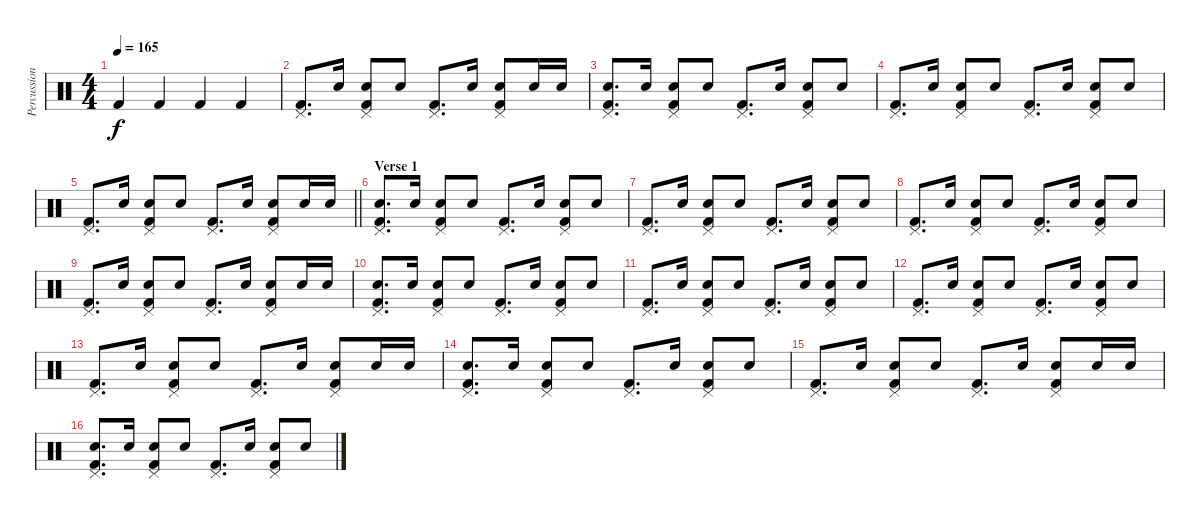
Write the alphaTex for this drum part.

\track ("Percussion" "Percussion") {instrument percussion}
\staff {score}
\articulation defaults
\ts (4 4)
\tempo 165
\clef neutral
\ks c "Kick (hit) 2".4{dy f} "Kick (hit) 2".4 "Kick (hit) 2".4 "Kick (hit) 2".4
|
("Pedal Hi-Hat (hit)" "Kick (hit) 2").8{d} "Electric Snare (hit)".16 ("Pedal Hi-Hat (hit)" "Electric Snare (hit)" "Kick (hit) 2").8 "Electric Snare (hit)".8 ("Pedal Hi-Hat (hit)" "Kick (hit) 2").8{d} "Electric Snare (hit)".16 ("Pedal Hi-Hat (hit)" "Electric Snare (hit)" "Kick (hit) 2").8 "Electric Snare (hit)".16 "Electric Snare (hit)".16 |
("Pedal Hi-Hat (hit)" "Electric Snare (hit)" "Kick (hit) 2").8{d} "Electric Snare (hit)".16 ("Pedal Hi-Hat (hit)" "Electric Snare (hit)" "Kick (hit) 2").8 "Electric Snare (hit)".8 ("Pedal Hi-Hat (hit)" "Kick (hit) 2").8{d} "Electric Snare (hit)".16 ("Pedal Hi-Hat (hit)" "Electric Snare (hit)" "Kick (hit) 2").8 "Electric Snare (hit)".8 |
("Pedal Hi-Hat (hit)" "Kick (hit) 2").8{d} "Electric Snare (hit)".16 ("Pedal Hi-Hat (hit)" "Electric Snare (hit)" "Kick (hit) 2").8 "Electric Snare (hit)".8 ("Pedal Hi-Hat (hit)" "Kick (hit) 2").8{d} "Electric Snare (hit)".16 ("Pedal Hi-Hat (hit)" "Electric Snare (hit)" "Kick (hit) 2").8 "Electric Snare (hit)".8 |
\barLineRight lightlight
("Pedal Hi-Hat (hit)" "Kick (hit) 2").8{d} "Electric Snare (hit)".16 ("Pedal Hi-Hat (hit)" "Electric Snare (hit)" "Kick (hit) 2").8 "Electric Snare (hit)".8 ("Pedal Hi-Hat (hit)" "Kick (hit) 2").8{d} "Electric Snare (hit)".16 ("Pedal Hi-Hat (hit)" "Electric Snare (hit)" "Kick (hit) 2").8 "Electric Snare (hit)".16 "Electric Snare (hit)".16 |
\section ("" "Verse 1")
("Pedal Hi-Hat (hit)" "Electric Snare (hit)" "Kick (hit) 2").8{d} "Electric Snare (hit)".16 ("Pedal Hi-Hat (hit)" "Electric Snare (hit)" "Kick (hit) 2").8 "Electric Snare (hit)".8 ("Pedal Hi-Hat (hit)" "Kick (hit) 2").8{d} "Electric Snare (hit)".16 ("Pedal Hi-Hat (hit)" "Electric Snare (hit)" "Kick (hit) 2").8 "Electric Snare (hit)".8 |
("Pedal Hi-Hat (hit)" "Kick (hit) 2").8{d} "Electric Snare (hit)".16 ("Pedal Hi-Hat (hit)" "Electric Snare (hit)" "Kick (hit) 2").8 "Electric Snare (hit)".8 ("Pedal Hi-Hat (hit)" "Kick (hit) 2").8{d} "Electric Snare (hit)".16 ("Pedal Hi-Hat (hit)" "Electric Snare (hit)" "Kick (hit) 2").8 "Electric Snare (hit)".8 |
("Pedal Hi-Hat (hit)" "Kick (hit) 2").8{d} "Electric Snare (hit)".16 ("Pedal Hi-Hat (hit)" "Electric Snare (hit)" "Kick (hit) 2").8 "Electric Snare (hit)".8 ("Pedal Hi-Hat (hit)" "Kick (hit) 2").8{d} "Electric Snare (hit)".16 ("Pedal Hi-Hat (hit)" "Electric Snare (hit)" "Kick (hit) 2").8 "Electric Snare (hit)".8 |
("Pedal Hi-Hat (hit)" "Kick (hit) 2").8{d} "Electric Snare (hit)".16 ("Pedal Hi-Hat (hit)" "Electric Snare (hit)" "Kick (hit) 2").8 "Electric Snare (hit)".8 ("Pedal Hi-Hat (hit)" "Kick (hit) 2").8{d} "Electric Snare (hit)".16 ("Pedal Hi-Hat (hit)" "Electric Snare (hit)" "Kick (hit) 2").8 "Electric Snare (hit)".16 "Electric Snare (hit)".16 |
("Pedal Hi-Hat (hit)" "Electric Snare (hit)" "Kick (hit) 2").8{d} "Electric Snare (hit)".16 ("Pedal Hi-Hat (hit)" "Electric Snare (hit)" "Kick (hit) 2").8 "Electric Snare (hit)".8 ("Pedal Hi-Hat (hit)" "Kick (hit) 2").8{d} "Electric Snare (hit)".16 ("Pedal Hi-Hat (hit)" "Electric Snare (hit)" "Kick (hit) 2").8 "Electric Snare (hit)".8 |
("Pedal Hi-Hat (hit)" "Kick (hit) 2").8{d} "Electric Snare (hit)".16 ("Pedal Hi-Hat (hit)" "Electric Snare (hit)" "Kick (hit) 2").8 "Electric Snare (hit)".8 ("Pedal Hi-Hat (hit)" "Kick (hit) 2").8{d} "Electric Snare (hit)".16 ("Pedal Hi-Hat (hit)" "Electric Snare (hit)" "Kick (hit) 2").8 "Electric Snare (hit)".8 |
("Pedal Hi-Hat (hit)" "Kick (hit) 2").8{d} "Electric Snare (hit)".16 ("Pedal Hi-Hat (hit)" "Electric Snare (hit)" "Kick (hit) 2").8 "Electric Snare (hit)".8 ("Pedal Hi-Hat (hit)" "Kick (hit) 2").8{d} "Electric Snare (hit)".16 ("Pedal Hi-Hat (hit)" "Electric Snare (hit)" "Kick (hit) 2").8 "Electric Snare (hit)".8 |
("Pedal Hi-Hat (hit)" "Kick (hit) 2").8{d} "Electric Snare (hit)".16 ("Pedal Hi-Hat (hit)" "Electric Snare (hit)" "Kick (hit) 2").8 "Electric Snare (hit)".8 ("Pedal Hi-Hat (hit)" "Kick (hit) 2").8{d} "Electric Snare (hit)".16 ("Pedal Hi-Hat (hit)" "Electric Snare (hit)" "Kick (hit) 2").8 "Electric Snare (hit)".16 "Electric Snare (hit)".16 |
("Pedal Hi-Hat (hit)" "Electric Snare (hit)" "Kick (hit) 2").8{d} "Electric Snare (hit)".16 ("Pedal Hi-Hat (hit)" "Electric Snare (hit)" "Kick (hit) 2").8 "Electric Snare (hit)".8 ("Pedal Hi-Hat (hit)" "Kick (hit) 2").8{d} "Electric Snare (hit)".16 ("Pedal Hi-Hat (hit)" "Electric Snare (hit)" "Kick (hit) 2").8 "Electric Snare (hit)".8 |
("Pedal Hi-Hat (hit)" "Kick (hit) 2").8{d} "Electric Snare (hit)".16 ("Pedal Hi-Hat (hit)" "Electric Snare (hit)" "Kick (hit) 2").8 "Electric Snare (hit)".8 ("Pedal Hi-Hat (hit)" "Kick (hit) 2").8{d} "Electric Snare (hit)".16 ("Pedal Hi-Hat (hit)" "Electric Snare (hit)" "Kick (hit) 2").8 "Electric Snare (hit)".16 "Electric Snare (hit)".16 |
("Pedal Hi-Hat (hit)" "Electric Snare (hit)" "Kick (hit) 2").8{d} "Electric Snare (hit)".16 ("Pedal Hi-Hat (hit)" "Electric Snare (hit)" "Kick (hit) 2").8 "Electric Snare (hit)".8 ("Pedal Hi-Hat (hit)" "Kick (hit) 2").8{d} "Electric Snare (hit)".16 ("Pedal Hi-Hat (hit)" "Electric Snare (hit)" "Kick (hit) 2").8 "Electric Snare (hit)".8
